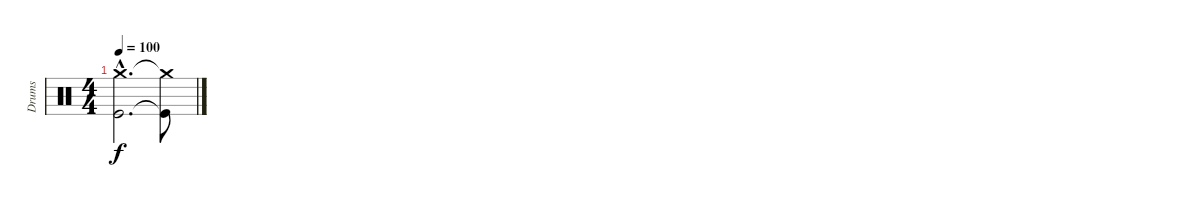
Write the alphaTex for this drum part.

\track ("Drums" "Drums") {instrument percussion}
\staff {score}
\articulation defaults
\ts (4 4)
\tempo 100
\clef neutral
\ks c
("Kick (hit)"{hac} "Crash medium (hit)"{hac}).2{d dy f} ("Kick (hit)"{t} "Crash medium (hit)"{t}).8
